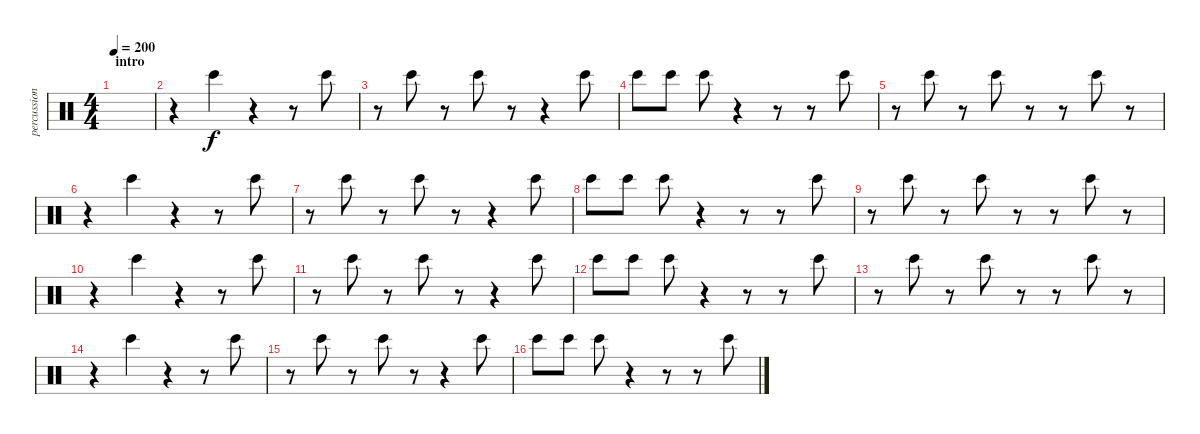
\track ("percussion" "percussion") {instrument percussion}
\staff {score}
\articulation defaults
\ts (4 4)
\section ("" "intro")
\tempo 200
\clef neutral
\ks c
|
r.4 "Bongo High (hit)".4 r.4 r.8 "Bongo High (hit)".8 |
r.8 "Bongo High (hit)".8 r.8 "Bongo High (hit)".8 r.8 r.4 "Bongo High (hit)".8 |
"Bongo High (hit)".8 "Bongo High (hit)".8 "Bongo High (hit)".8 r.4 r.8 r.8 "Bongo High (hit)".8 |
r.8 "Bongo High (hit)".8 r.8 "Bongo High (hit)".8 r.8 r.8 "Bongo High (hit)".8 r.8 |
r.4 "Bongo High (hit)".4 r.4 r.8 "Bongo High (hit)".8 |
r.8 "Bongo High (hit)".8 r.8 "Bongo High (hit)".8 r.8 r.4 "Bongo High (hit)".8 |
"Bongo High (hit)".8 "Bongo High (hit)".8 "Bongo High (hit)".8 r.4 r.8 r.8 "Bongo High (hit)".8 |
r.8 "Bongo High (hit)".8 r.8 "Bongo High (hit)".8 r.8 r.8 "Bongo High (hit)".8 r.8 |
r.4 "Bongo High (hit)".4 r.4 r.8 "Bongo High (hit)".8 |
r.8 "Bongo High (hit)".8 r.8 "Bongo High (hit)".8 r.8 r.4 "Bongo High (hit)".8 |
"Bongo High (hit)".8 "Bongo High (hit)".8 "Bongo High (hit)".8 r.4 r.8 r.8 "Bongo High (hit)".8 |
r.8 "Bongo High (hit)".8 r.8 "Bongo High (hit)".8 r.8 r.8 "Bongo High (hit)".8 r.8 |
r.4 "Bongo High (hit)".4 r.4 r.8 "Bongo High (hit)".8 |
r.8 "Bongo High (hit)".8 r.8 "Bongo High (hit)".8 r.8 r.4 "Bongo High (hit)".8 |
"Bongo High (hit)".8 "Bongo High (hit)".8 "Bongo High (hit)".8 r.4 r.8 r.8 "Bongo High (hit)".8
